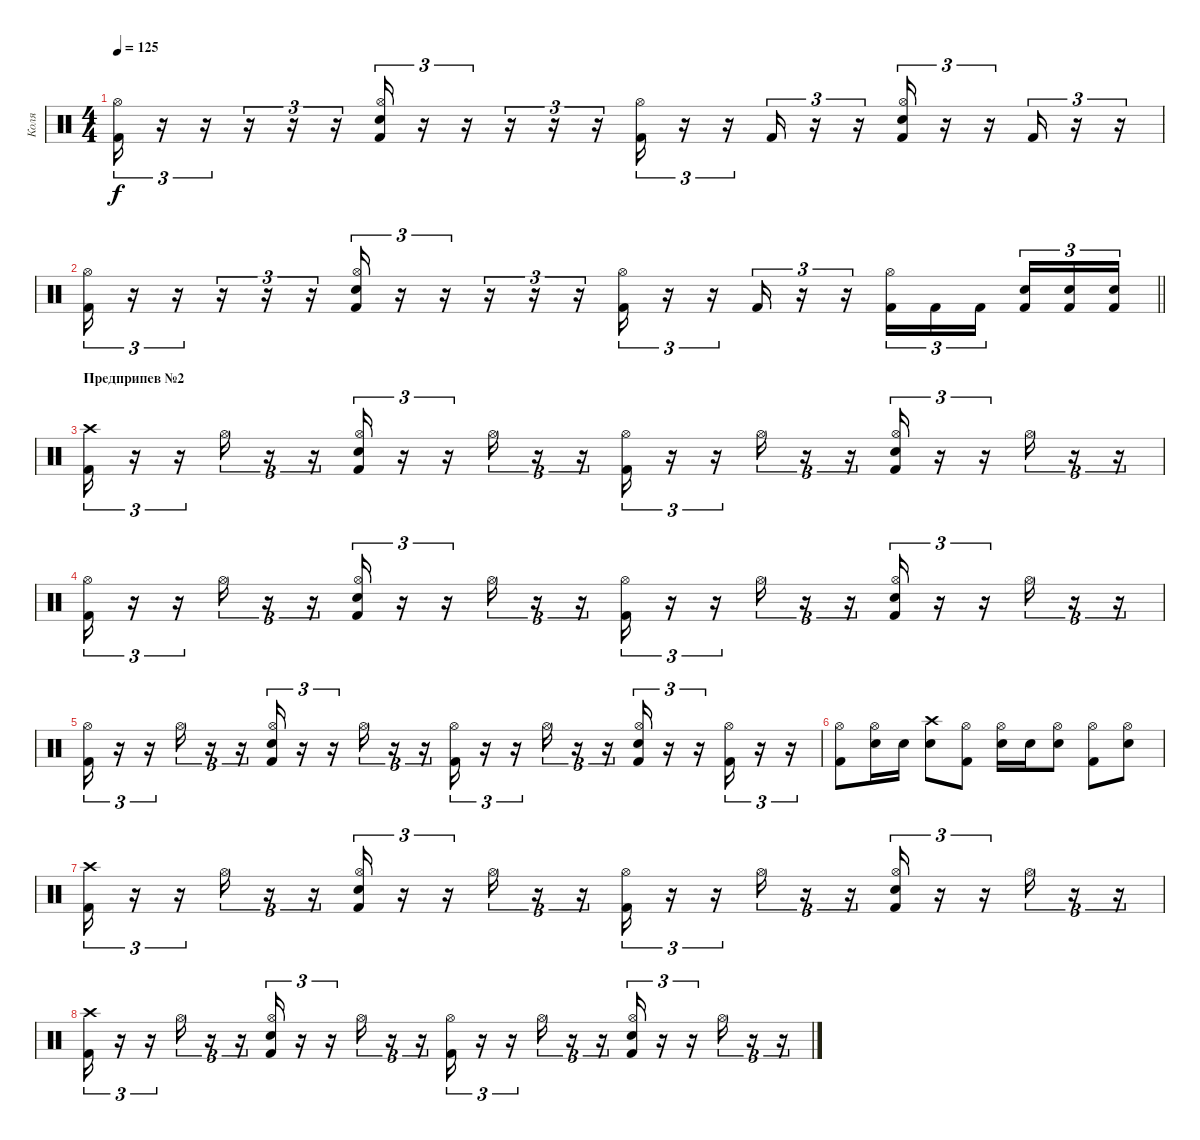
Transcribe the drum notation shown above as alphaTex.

\track ("Коля" "Коля") {instrument percussion}
\staff {score}
\articulation defaults
\ts (4 4)
\tempo 125
\clef neutral
\ks c
("Kick (hit) 2" "Hi-Hat (open)").16{tu (3 2) dy f} r.16{tu (3 2)} r.16{tu (3 2)} r.16{tu (3 2)} r.16{tu (3 2)} r.16{tu (3 2)} ("Kick (hit) 2" "Snare (hit) 2" "Hi-Hat (open)").16{tu (3 2)} r.16{tu (3 2)} r.16{tu (3 2)} r.16{tu (3 2)} r.16{tu (3 2)} r.16{tu (3 2)} ("Kick (hit) 2" "Hi-Hat (open)").16{tu (3 2)} r.16{tu (3 2)} r.16{tu (3 2)} "Kick (hit) 2".16{tu (3 2)} r.16{tu (3 2)} r.16{tu (3 2)} ("Kick (hit) 2" "Snare (hit) 2" "Hi-Hat (open)").16{tu (3 2)} r.16{tu (3 2)} r.16{tu (3 2)} "Kick (hit) 2".16{tu (3 2)} r.16{tu (3 2)} r.16{tu (3 2)} |
\barLineRight lightlight
("Kick (hit) 2" "Hi-Hat (open)").16{tu (3 2)} r.16{tu (3 2)} r.16{tu (3 2)} r.16{tu (3 2)} r.16{tu (3 2)} r.16{tu (3 2)} ("Kick (hit) 2" "Snare (hit) 2" "Hi-Hat (open)").16{tu (3 2)} r.16{tu (3 2)} r.16{tu (3 2)} r.16{tu (3 2)} r.16{tu (3 2)} r.16{tu (3 2)} ("Kick (hit) 2" "Hi-Hat (open)").16{tu (3 2)} r.16{tu (3 2)} r.16{tu (3 2)} "Kick (hit) 2".16{tu (3 2)} r.16{tu (3 2)} r.16{tu (3 2)} ("Kick (hit) 2" "Hi-Hat (open)").16{tu (3 2)} "Kick (hit) 2".16{tu (3 2)} "Kick (hit) 2".16{tu (3 2) beam splitsecondary} ("Kick (hit) 2" "Snare (hit) 2").16{tu (3 2)} ("Kick (hit) 2" "Snare (hit) 2").16{tu (3 2)} ("Kick (hit) 2" "Snare (hit) 2").16{tu (3 2)} |
\section ("" "Предприпев №2")
("Kick (hit) 2" "Crash high (hit)").16{tu (3 2)} r.16{tu (3 2)} r.16{tu (3 2)} "Hi-Hat (open)".16{tu (3 2)} r.16{tu (3 2)} r.16{tu (3 2)} ("Kick (hit) 2" "Snare (hit) 2" "Hi-Hat (open)").16{tu (3 2)} r.16{tu (3 2)} r.16{tu (3 2)} "Hi-Hat (open)".16{tu (3 2)} r.16{tu (3 2)} r.16{tu (3 2)} ("Kick (hit) 2" "Hi-Hat (open)").16{tu (3 2)} r.16{tu (3 2)} r.16{tu (3 2)} "Hi-Hat (open)".16{tu (3 2)} r.16{tu (3 2)} r.16{tu (3 2)} ("Kick (hit) 2" "Snare (hit) 2" "Hi-Hat (open)").16{tu (3 2)} r.16{tu (3 2)} r.16{tu (3 2)} "Hi-Hat (open)".16{tu (3 2)} r.16{tu (3 2)} r.16{tu (3 2)} |
("Kick (hit) 2" "Hi-Hat (open)").16{tu (3 2)} r.16{tu (3 2)} r.16{tu (3 2)} "Hi-Hat (open)".16{tu (3 2)} r.16{tu (3 2)} r.16{tu (3 2)} ("Kick (hit) 2" "Snare (hit) 2" "Hi-Hat (open)").16{tu (3 2)} r.16{tu (3 2)} r.16{tu (3 2)} "Hi-Hat (open)".16{tu (3 2)} r.16{tu (3 2)} r.16{tu (3 2)} ("Kick (hit) 2" "Hi-Hat (open)").16{tu (3 2)} r.16{tu (3 2)} r.16{tu (3 2)} "Hi-Hat (open)".16{tu (3 2)} r.16{tu (3 2)} r.16{tu (3 2)} ("Kick (hit) 2" "Snare (hit) 2" "Hi-Hat (open)").16{tu (3 2)} r.16{tu (3 2)} r.16{tu (3 2)} "Hi-Hat (open)".16{tu (3 2)} r.16{tu (3 2)} r.16{tu (3 2)} |
("Kick (hit) 2" "Hi-Hat (open)").16{tu (3 2)} r.16{tu (3 2)} r.16{tu (3 2)} "Hi-Hat (open)".16{tu (3 2)} r.16{tu (3 2)} r.16{tu (3 2)} ("Kick (hit) 2" "Snare (hit) 2" "Hi-Hat (open)").16{tu (3 2)} r.16{tu (3 2)} r.16{tu (3 2)} "Hi-Hat (open)".16{tu (3 2)} r.16{tu (3 2)} r.16{tu (3 2)} ("Kick (hit) 2" "Hi-Hat (open)").16{tu (3 2)} r.16{tu (3 2)} r.16{tu (3 2)} "Hi-Hat (open)".16{tu (3 2)} r.16{tu (3 2)} r.16{tu (3 2)} ("Kick (hit) 2" "Snare (hit) 2" "Hi-Hat (open)").16{tu (3 2)} r.16{tu (3 2)} r.16{tu (3 2)} ("Kick (hit) 2" "Hi-Hat (open)").16{tu (3 2)} r.16{tu (3 2)} r.16{tu (3 2)} |
("Kick (hit) 2" "Hi-Hat (open)").8 ("Snare (hit) 2" "Hi-Hat (open)").16 "Snare (hit) 2".16 ("Snare (hit) 2" "Crash high (hit)").8 ("Kick (hit) 2" "Hi-Hat (open)").8 ("Snare (hit) 2" "Hi-Hat (open)").16 "Snare (hit) 2".16 ("Snare (hit) 2" "Hi-Hat (open)").8 ("Kick (hit) 2" "Hi-Hat (open)").8 ("Snare (hit) 2" "Hi-Hat (open)").8 |
("Kick (hit) 2" "Crash high (hit)").16{tu (3 2)} r.16{tu (3 2)} r.16{tu (3 2)} "Hi-Hat (open)".16{tu (3 2)} r.16{tu (3 2)} r.16{tu (3 2)} ("Kick (hit) 2" "Snare (hit) 2" "Hi-Hat (open)").16{tu (3 2)} r.16{tu (3 2)} r.16{tu (3 2)} "Hi-Hat (open)".16{tu (3 2)} r.16{tu (3 2)} r.16{tu (3 2)} ("Kick (hit) 2" "Hi-Hat (open)").16{tu (3 2)} r.16{tu (3 2)} r.16{tu (3 2)} "Hi-Hat (open)".16{tu (3 2)} r.16{tu (3 2)} r.16{tu (3 2)} ("Kick (hit) 2" "Snare (hit) 2" "Hi-Hat (open)").16{tu (3 2)} r.16{tu (3 2)} r.16{tu (3 2)} "Hi-Hat (open)".16{tu (3 2)} r.16{tu (3 2)} r.16{tu (3 2)} |
("Kick (hit) 2" "Crash high (hit)").16{tu (3 2)} r.16{tu (3 2)} r.16{tu (3 2)} "Hi-Hat (open)".16{tu (3 2)} r.16{tu (3 2)} r.16{tu (3 2)} ("Kick (hit) 2" "Snare (hit) 2" "Hi-Hat (open)").16{tu (3 2)} r.16{tu (3 2)} r.16{tu (3 2)} "Hi-Hat (open)".16{tu (3 2)} r.16{tu (3 2)} r.16{tu (3 2)} ("Kick (hit) 2" "Hi-Hat (open)").16{tu (3 2)} r.16{tu (3 2)} r.16{tu (3 2)} "Hi-Hat (open)".16{tu (3 2)} r.16{tu (3 2)} r.16{tu (3 2)} ("Kick (hit) 2" "Snare (hit) 2" "Hi-Hat (open)").16{tu (3 2)} r.16{tu (3 2)} r.16{tu (3 2)} "Hi-Hat (open)".16{tu (3 2)} r.16{tu (3 2)} r.16{tu (3 2)}
